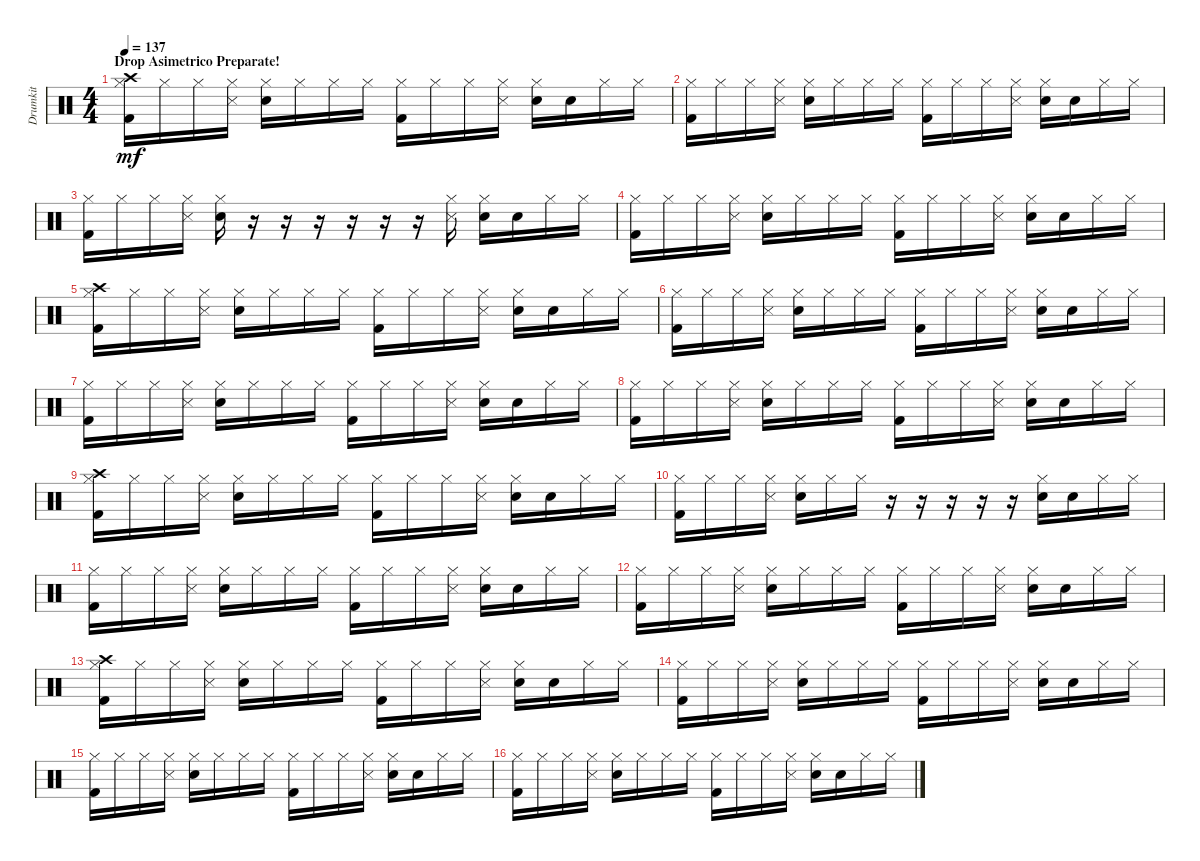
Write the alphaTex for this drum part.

\track ("Drumkit" "Drumkit") {instrument percussion}
\staff {score}
\articulation defaults
\ts (4 4)
\section ("" "Drop Asimetrico Preparate!")
\tempo 137
\clef neutral
\ks c
("Hi-Hat (closed)" "Crash high (hit)" "Kick (hit) 2").16{dy mf} "Hi-Hat (closed)".16 "Hi-Hat (closed)".16 ("Hi-Hat (closed)" "Snare (side stick) 3").16 ("Hi-Hat (closed)" "Electric Snare (hit)").16 "Hi-Hat (closed)".16 "Hi-Hat (closed)".16 "Hi-Hat (closed)".16 ("Hi-Hat (closed)" "Kick (hit) 2").16 "Hi-Hat (closed)".16 "Hi-Hat (closed)".16 ("Hi-Hat (closed)" "Snare (side stick) 3").16 ("Hi-Hat (closed)" "Electric Snare (hit)").16 "Snare (hit)".16 "Hi-Hat (closed)".16 "Hi-Hat (closed)".16 |
("Hi-Hat (closed)" "Kick (hit) 2").16 "Hi-Hat (closed)".16 "Hi-Hat (closed)".16 ("Hi-Hat (closed)" "Snare (side stick) 3").16 ("Hi-Hat (closed)" "Electric Snare (hit)").16 "Hi-Hat (closed)".16 "Hi-Hat (closed)".16 "Hi-Hat (closed)".16 ("Hi-Hat (closed)" "Kick (hit) 2").16 "Hi-Hat (closed)".16 "Hi-Hat (closed)".16 ("Hi-Hat (closed)" "Snare (side stick) 3").16 ("Hi-Hat (closed)" "Electric Snare (hit)").16 "Snare (hit)".16 "Hi-Hat (closed)".16 "Hi-Hat (closed)".16 |
("Hi-Hat (closed)" "Kick (hit) 2").16 "Hi-Hat (closed)".16 "Hi-Hat (closed)".16 ("Hi-Hat (closed)" "Snare (side stick) 3").16 ("Hi-Hat (closed)" "Electric Snare (hit)").16 r.16 r.16 r.16 r.16 r.16 r.16 ("Hi-Hat (closed)" "Snare (side stick) 3").16 ("Hi-Hat (closed)" "Electric Snare (hit)").16 "Snare (hit)".16 "Hi-Hat (closed)".16 "Hi-Hat (closed)".16 |
("Hi-Hat (closed)" "Kick (hit) 2").16 "Hi-Hat (closed)".16 "Hi-Hat (closed)".16 ("Hi-Hat (closed)" "Snare (side stick) 3").16 ("Hi-Hat (closed)" "Electric Snare (hit)").16 "Hi-Hat (closed)".16 "Hi-Hat (closed)".16 "Hi-Hat (closed)".16 ("Hi-Hat (closed)" "Kick (hit) 2").16 "Hi-Hat (closed)".16 "Hi-Hat (closed)".16 ("Hi-Hat (closed)" "Snare (side stick) 3").16 ("Hi-Hat (closed)" "Electric Snare (hit)").16 "Snare (hit)".16 "Hi-Hat (closed)".16 "Hi-Hat (closed)".16 |
("Hi-Hat (closed)" "Crash high (hit)" "Kick (hit) 2").16 "Hi-Hat (closed)".16 "Hi-Hat (closed)".16 ("Hi-Hat (closed)" "Snare (side stick) 3").16 ("Hi-Hat (closed)" "Electric Snare (hit)").16 "Hi-Hat (closed)".16 "Hi-Hat (closed)".16 "Hi-Hat (closed)".16 ("Hi-Hat (closed)" "Kick (hit) 2").16 "Hi-Hat (closed)".16 "Hi-Hat (closed)".16 ("Hi-Hat (closed)" "Snare (side stick) 3").16 ("Hi-Hat (closed)" "Electric Snare (hit)").16 "Snare (hit)".16 "Hi-Hat (closed)".16 "Hi-Hat (closed)".16 |
("Hi-Hat (closed)" "Kick (hit) 2").16 "Hi-Hat (closed)".16 "Hi-Hat (closed)".16 ("Hi-Hat (closed)" "Snare (side stick) 3").16 ("Hi-Hat (closed)" "Electric Snare (hit)").16 "Hi-Hat (closed)".16 "Hi-Hat (closed)".16 "Hi-Hat (closed)".16 ("Hi-Hat (closed)" "Kick (hit) 2").16 "Hi-Hat (closed)".16 "Hi-Hat (closed)".16 ("Hi-Hat (closed)" "Snare (side stick) 3").16 ("Hi-Hat (closed)" "Electric Snare (hit)").16 "Snare (hit)".16 "Hi-Hat (closed)".16 "Hi-Hat (closed)".16 |
("Hi-Hat (closed)" "Kick (hit) 2").16 "Hi-Hat (closed)".16 "Hi-Hat (closed)".16 ("Hi-Hat (closed)" "Snare (side stick) 3").16 ("Hi-Hat (closed)" "Electric Snare (hit)").16 "Hi-Hat (closed)".16 "Hi-Hat (closed)".16 "Hi-Hat (closed)".16 ("Hi-Hat (closed)" "Kick (hit) 2").16 "Hi-Hat (closed)".16 "Hi-Hat (closed)".16 ("Hi-Hat (closed)" "Snare (side stick) 3").16 ("Hi-Hat (closed)" "Electric Snare (hit)").16 "Snare (hit)".16 "Hi-Hat (closed)".16 "Hi-Hat (closed)".16 |
("Hi-Hat (closed)" "Kick (hit) 2").16 "Hi-Hat (closed)".16 "Hi-Hat (closed)".16 ("Hi-Hat (closed)" "Snare (side stick) 3").16 ("Hi-Hat (closed)" "Electric Snare (hit)").16 "Hi-Hat (closed)".16 "Hi-Hat (closed)".16 "Hi-Hat (closed)".16 ("Hi-Hat (closed)" "Kick (hit) 2").16 "Hi-Hat (closed)".16 "Hi-Hat (closed)".16 ("Hi-Hat (closed)" "Snare (side stick) 3").16 ("Hi-Hat (closed)" "Electric Snare (hit)").16 "Snare (hit)".16 "Hi-Hat (closed)".16 "Hi-Hat (closed)".16 |
("Hi-Hat (closed)" "Crash high (hit)" "Kick (hit) 2").16 "Hi-Hat (closed)".16 "Hi-Hat (closed)".16 ("Hi-Hat (closed)" "Snare (side stick) 3").16 ("Hi-Hat (closed)" "Electric Snare (hit)").16 "Hi-Hat (closed)".16 "Hi-Hat (closed)".16 "Hi-Hat (closed)".16 ("Hi-Hat (closed)" "Kick (hit) 2").16 "Hi-Hat (closed)".16 "Hi-Hat (closed)".16 ("Hi-Hat (closed)" "Snare (side stick) 3").16 ("Hi-Hat (closed)" "Electric Snare (hit)").16 "Snare (hit)".16 "Hi-Hat (closed)".16 "Hi-Hat (closed)".16 |
("Hi-Hat (closed)" "Kick (hit) 2").16 "Hi-Hat (closed)".16 "Hi-Hat (closed)".16 ("Hi-Hat (closed)" "Snare (side stick) 3").16 ("Hi-Hat (closed)" "Electric Snare (hit)").16 "Hi-Hat (closed)".16 "Hi-Hat (closed)".16 r.16 r.16 r.16 r.16 r.16 ("Hi-Hat (closed)" "Electric Snare (hit)").16 "Snare (hit)".16 "Hi-Hat (closed)".16 "Hi-Hat (closed)".16 |
("Hi-Hat (closed)" "Kick (hit) 2").16 "Hi-Hat (closed)".16 "Hi-Hat (closed)".16 ("Hi-Hat (closed)" "Snare (side stick) 3").16 ("Hi-Hat (closed)" "Electric Snare (hit)").16 "Hi-Hat (closed)".16 "Hi-Hat (closed)".16 "Hi-Hat (closed)".16 ("Hi-Hat (closed)" "Kick (hit) 2").16 "Hi-Hat (closed)".16 "Hi-Hat (closed)".16 ("Hi-Hat (closed)" "Snare (side stick) 3").16 ("Hi-Hat (closed)" "Electric Snare (hit)").16 "Snare (hit)".16 "Hi-Hat (closed)".16 "Hi-Hat (closed)".16 |
("Hi-Hat (closed)" "Kick (hit) 2").16 "Hi-Hat (closed)".16 "Hi-Hat (closed)".16 ("Hi-Hat (closed)" "Snare (side stick) 3").16 ("Hi-Hat (closed)" "Electric Snare (hit)").16 "Hi-Hat (closed)".16 "Hi-Hat (closed)".16 "Hi-Hat (closed)".16 ("Hi-Hat (closed)" "Kick (hit) 2").16 "Hi-Hat (closed)".16 "Hi-Hat (closed)".16 ("Hi-Hat (closed)" "Snare (side stick) 3").16 ("Hi-Hat (closed)" "Electric Snare (hit)").16 "Snare (hit)".16 "Hi-Hat (closed)".16 "Hi-Hat (closed)".16 |
("Hi-Hat (closed)" "Crash high (hit)" "Kick (hit) 2").16 "Hi-Hat (closed)".16 "Hi-Hat (closed)".16 ("Hi-Hat (closed)" "Snare (side stick) 3").16 ("Hi-Hat (closed)" "Electric Snare (hit)").16 "Hi-Hat (closed)".16 "Hi-Hat (closed)".16 "Hi-Hat (closed)".16 ("Hi-Hat (closed)" "Kick (hit) 2").16 "Hi-Hat (closed)".16 "Hi-Hat (closed)".16 ("Hi-Hat (closed)" "Snare (side stick) 3").16 ("Hi-Hat (closed)" "Electric Snare (hit)").16 "Snare (hit)".16 "Hi-Hat (closed)".16 "Hi-Hat (closed)".16 |
("Hi-Hat (closed)" "Kick (hit) 2").16 "Hi-Hat (closed)".16 "Hi-Hat (closed)".16 ("Hi-Hat (closed)" "Snare (side stick) 3").16 ("Hi-Hat (closed)" "Electric Snare (hit)").16 "Hi-Hat (closed)".16 "Hi-Hat (closed)".16 "Hi-Hat (closed)".16 ("Hi-Hat (closed)" "Kick (hit) 2").16 "Hi-Hat (closed)".16 "Hi-Hat (closed)".16 ("Hi-Hat (closed)" "Snare (side stick) 3").16 ("Hi-Hat (closed)" "Electric Snare (hit)").16 "Snare (hit)".16 "Hi-Hat (closed)".16 "Hi-Hat (closed)".16 |
("Hi-Hat (closed)" "Kick (hit) 2").16 "Hi-Hat (closed)".16 "Hi-Hat (closed)".16 ("Hi-Hat (closed)" "Snare (side stick) 3").16 ("Hi-Hat (closed)" "Electric Snare (hit)").16 "Hi-Hat (closed)".16 "Hi-Hat (closed)".16 "Hi-Hat (closed)".16 ("Hi-Hat (closed)" "Kick (hit) 2").16 "Hi-Hat (closed)".16 "Hi-Hat (closed)".16 ("Hi-Hat (closed)" "Snare (side stick) 3").16 ("Hi-Hat (closed)" "Electric Snare (hit)").16 "Snare (hit)".16 "Hi-Hat (closed)".16 "Hi-Hat (closed)".16 |
("Hi-Hat (closed)" "Kick (hit) 2").16 "Hi-Hat (closed)".16 "Hi-Hat (closed)".16 ("Hi-Hat (closed)" "Snare (side stick) 3").16 ("Hi-Hat (closed)" "Electric Snare (hit)").16 "Hi-Hat (closed)".16 "Hi-Hat (closed)".16 "Hi-Hat (closed)".16 ("Hi-Hat (closed)" "Kick (hit) 2").16 "Hi-Hat (closed)".16 "Hi-Hat (closed)".16 ("Hi-Hat (closed)" "Snare (side stick) 3").16 ("Hi-Hat (closed)" "Electric Snare (hit)").16 "Snare (hit)".16 "Hi-Hat (closed)".16 "Hi-Hat (closed)".16
